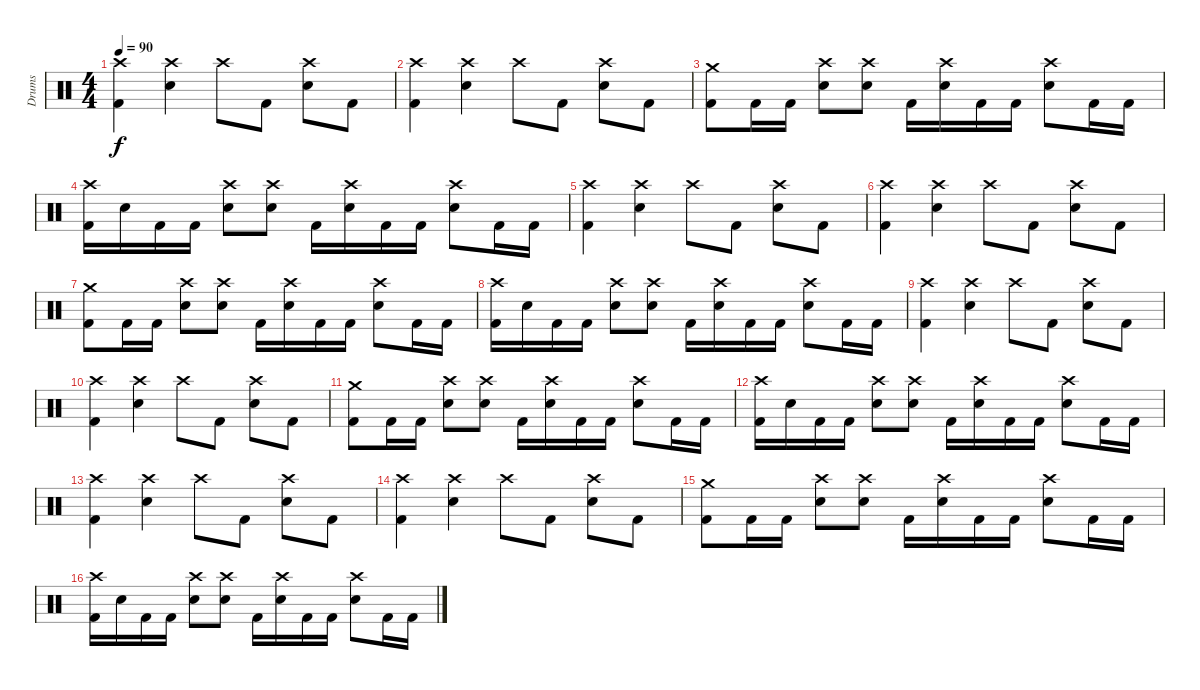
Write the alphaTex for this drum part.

\track ("Drums" "Drums") {instrument percussion}
\staff {score}
\articulation defaults
\ts (4 4)
\tempo 90
\clef neutral
\ks c
("Crash high (hit)" "Kick (hit) 2").4{dy f} ("Snare (hit) 2" "Crash high (hit)").4 "Crash high (hit)".8 "Kick (hit) 2".8 ("Snare (hit) 2" "Crash high (hit)").8 "Kick (hit) 2".8 |
("Crash high (hit)" "Kick (hit) 2").4 ("Snare (hit) 2" "Crash high (hit)").4 "Crash high (hit)".8 "Kick (hit) 2".8 ("Snare (hit) 2" "Crash high (hit)").8 "Kick (hit) 2".8 |
("Crash medium (hit)" "Kick (hit) 2").8 "Kick (hit) 2".16 "Kick (hit) 2".16 ("Snare (hit) 2" "Crash high (hit)").8 ("Snare (hit) 2" "Crash high (hit)").8 "Kick (hit) 2".16 ("Snare (hit) 2" "Crash high (hit)").16 "Kick (hit) 2".16 "Kick (hit) 2".16 ("Snare (hit) 2" "Crash high (hit)").8 "Kick (hit) 2".16 "Kick (hit) 2".16 |
("Crash high (hit)" "Kick (hit) 2").16 "Snare (hit) 2".16 "Kick (hit) 2".16 "Kick (hit) 2".16 ("Snare (hit) 2" "Crash high (hit)").8 ("Snare (hit) 2" "Crash high (hit)").8 "Kick (hit) 2".16 ("Snare (hit) 2" "Crash high (hit)").16 "Kick (hit) 2".16 "Kick (hit) 2".16 ("Snare (hit) 2" "Crash high (hit)").8 "Kick (hit) 2".16 "Kick (hit) 2".16 |
("Crash high (hit)" "Kick (hit) 2").4 ("Snare (hit) 2" "Crash high (hit)").4 "Crash high (hit)".8 "Kick (hit) 2".8 ("Snare (hit) 2" "Crash high (hit)").8 "Kick (hit) 2".8 |
("Crash high (hit)" "Kick (hit) 2").4 ("Snare (hit) 2" "Crash high (hit)").4 "Crash high (hit)".8 "Kick (hit) 2".8 ("Snare (hit) 2" "Crash high (hit)").8 "Kick (hit) 2".8 |
("Crash medium (hit)" "Kick (hit) 2").8 "Kick (hit) 2".16 "Kick (hit) 2".16 ("Snare (hit) 2" "Crash high (hit)").8 ("Snare (hit) 2" "Crash high (hit)").8 "Kick (hit) 2".16 ("Snare (hit) 2" "Crash high (hit)").16 "Kick (hit) 2".16 "Kick (hit) 2".16 ("Snare (hit) 2" "Crash high (hit)").8 "Kick (hit) 2".16 "Kick (hit) 2".16 |
("Crash high (hit)" "Kick (hit) 2").16 "Snare (hit) 2".16 "Kick (hit) 2".16 "Kick (hit) 2".16 ("Snare (hit) 2" "Crash high (hit)").8 ("Snare (hit) 2" "Crash high (hit)").8 "Kick (hit) 2".16 ("Snare (hit) 2" "Crash high (hit)").16 "Kick (hit) 2".16 "Kick (hit) 2".16 ("Snare (hit) 2" "Crash high (hit)").8 "Kick (hit) 2".16 "Kick (hit) 2".16 |
("Crash high (hit)" "Kick (hit) 2").4 ("Snare (hit) 2" "Crash high (hit)").4 "Crash high (hit)".8 "Kick (hit) 2".8 ("Snare (hit) 2" "Crash high (hit)").8 "Kick (hit) 2".8 |
("Crash high (hit)" "Kick (hit) 2").4 ("Snare (hit) 2" "Crash high (hit)").4 "Crash high (hit)".8 "Kick (hit) 2".8 ("Snare (hit) 2" "Crash high (hit)").8 "Kick (hit) 2".8 |
("Crash medium (hit)" "Kick (hit) 2").8 "Kick (hit) 2".16 "Kick (hit) 2".16 ("Snare (hit) 2" "Crash high (hit)").8 ("Snare (hit) 2" "Crash high (hit)").8 "Kick (hit) 2".16 ("Snare (hit) 2" "Crash high (hit)").16 "Kick (hit) 2".16 "Kick (hit) 2".16 ("Snare (hit) 2" "Crash high (hit)").8 "Kick (hit) 2".16 "Kick (hit) 2".16 |
("Crash high (hit)" "Kick (hit) 2").16 "Snare (hit) 2".16 "Kick (hit) 2".16 "Kick (hit) 2".16 ("Snare (hit) 2" "Crash high (hit)").8 ("Snare (hit) 2" "Crash high (hit)").8 "Kick (hit) 2".16 ("Snare (hit) 2" "Crash high (hit)").16 "Kick (hit) 2".16 "Kick (hit) 2".16 ("Snare (hit) 2" "Crash high (hit)").8 "Kick (hit) 2".16 "Kick (hit) 2".16 |
("Crash high (hit)" "Kick (hit) 2").4 ("Snare (hit) 2" "Crash high (hit)").4 "Crash high (hit)".8 "Kick (hit) 2".8 ("Snare (hit) 2" "Crash high (hit)").8 "Kick (hit) 2".8 |
("Crash high (hit)" "Kick (hit) 2").4 ("Snare (hit) 2" "Crash high (hit)").4 "Crash high (hit)".8 "Kick (hit) 2".8 ("Snare (hit) 2" "Crash high (hit)").8 "Kick (hit) 2".8 |
("Crash medium (hit)" "Kick (hit) 2").8 "Kick (hit) 2".16 "Kick (hit) 2".16 ("Snare (hit) 2" "Crash high (hit)").8 ("Snare (hit) 2" "Crash high (hit)").8 "Kick (hit) 2".16 ("Snare (hit) 2" "Crash high (hit)").16 "Kick (hit) 2".16 "Kick (hit) 2".16 ("Snare (hit) 2" "Crash high (hit)").8 "Kick (hit) 2".16 "Kick (hit) 2".16 |
("Crash high (hit)" "Kick (hit) 2").16 "Snare (hit) 2".16 "Kick (hit) 2".16 "Kick (hit) 2".16 ("Snare (hit) 2" "Crash high (hit)").8 ("Snare (hit) 2" "Crash high (hit)").8 "Kick (hit) 2".16 ("Snare (hit) 2" "Crash high (hit)").16 "Kick (hit) 2".16 "Kick (hit) 2".16 ("Snare (hit) 2" "Crash high (hit)").8 "Kick (hit) 2".16 "Kick (hit) 2".16
